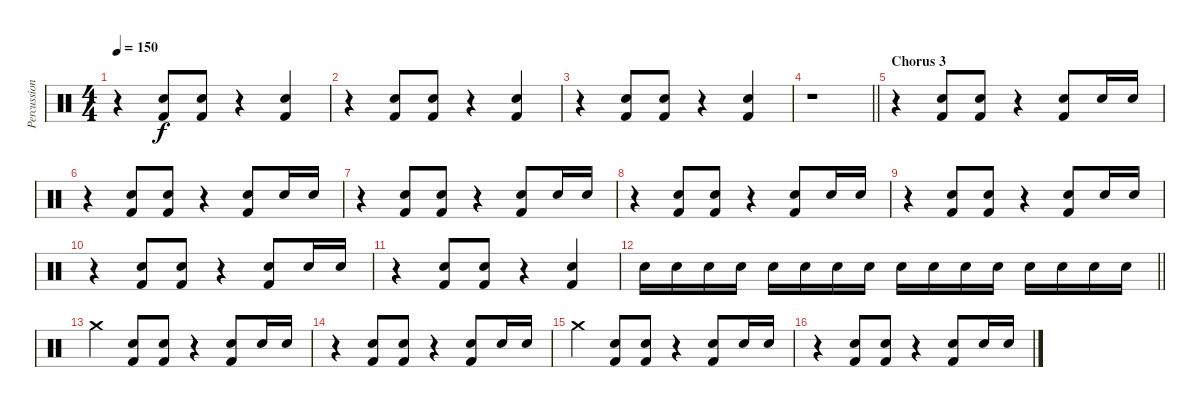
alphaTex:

\track ("Percussion" "Percussion") {instrument percussion}
\staff {score}
\articulation defaults
\ts (4 4)
\tempo 150
\clef neutral
\ks c
r.4{dy f} ("Snare (hit) 2" "Kick (hit) 2").8 ("Snare (hit) 2" "Kick (hit) 2").8 r.4 ("Snare (hit) 2" "Kick (hit) 2").4 |
r.4 ("Snare (hit) 2" "Kick (hit) 2").8 ("Snare (hit) 2" "Kick (hit) 2").8 r.4 ("Snare (hit) 2" "Kick (hit) 2").4 |
r.4 ("Snare (hit) 2" "Kick (hit) 2").8 ("Snare (hit) 2" "Kick (hit) 2").8 r.4 ("Snare (hit) 2" "Kick (hit) 2").4 |
\barLineRight lightlight
r.1 |
\section ("" "Chorus 3")
r.4 ("Snare (hit) 2" "Kick (hit) 2").8 ("Snare (hit) 2" "Kick (hit) 2").8 r.4 ("Snare (hit) 2" "Kick (hit) 2").8 "Snare (hit) 2".16 "Snare (hit) 2".16 |
r.4 ("Snare (hit) 2" "Kick (hit) 2").8 ("Snare (hit) 2" "Kick (hit) 2").8 r.4 ("Snare (hit) 2" "Kick (hit) 2").8 "Snare (hit) 2".16 "Snare (hit) 2".16 |
r.4 ("Snare (hit) 2" "Kick (hit) 2").8 ("Snare (hit) 2" "Kick (hit) 2").8 r.4 ("Snare (hit) 2" "Kick (hit) 2").8 "Snare (hit) 2".16 "Snare (hit) 2".16 |
r.4 ("Snare (hit) 2" "Kick (hit) 2").8 ("Snare (hit) 2" "Kick (hit) 2").8 r.4 ("Snare (hit) 2" "Kick (hit) 2").8 "Snare (hit) 2".16 "Snare (hit) 2".16 |
r.4 ("Snare (hit) 2" "Kick (hit) 2").8 ("Snare (hit) 2" "Kick (hit) 2").8 r.4 ("Snare (hit) 2" "Kick (hit) 2").8 "Snare (hit) 2".16 "Snare (hit) 2".16 |
r.4 ("Snare (hit) 2" "Kick (hit) 2").8 ("Snare (hit) 2" "Kick (hit) 2").8 r.4 ("Snare (hit) 2" "Kick (hit) 2").8 "Snare (hit) 2".16 "Snare (hit) 2".16 |
r.4 ("Snare (hit) 2" "Kick (hit) 2").8 ("Snare (hit) 2" "Kick (hit) 2").8 r.4 ("Snare (hit) 2" "Kick (hit) 2").4 |
\barLineRight lightlight "Electric Snare (hit)".16 "Electric Snare (hit)".16 "Electric Snare (hit)".16 "Electric Snare (hit)".16 "Electric Snare (hit)".16 "Electric Snare (hit)".16 "Electric Snare (hit)".16 "Electric Snare (hit)".16 "Snare (hit) 2".16 "Snare (hit) 2".16 "Snare (hit) 2".16 "Snare (hit) 2".16 "Snare (hit) 2".16 "Snare (hit) 2".16 "Snare (hit) 2".16 "Snare (hit) 2".16
|
"Crash medium (hit)".4 ("Snare (hit) 2" "Kick (hit) 2").8 ("Snare (hit) 2" "Kick (hit) 2").8 r.4 ("Snare (hit) 2" "Kick (hit) 2").8 "Snare (hit) 2".16 "Snare (hit) 2".16 |
r.4 ("Snare (hit) 2" "Kick (hit) 2").8 ("Snare (hit) 2" "Kick (hit) 2").8 r.4 ("Snare (hit) 2" "Kick (hit) 2").8 "Snare (hit) 2".16 "Snare (hit) 2".16 |
"Crash medium (hit)".4 ("Snare (hit) 2" "Kick (hit) 2").8 ("Snare (hit) 2" "Kick (hit) 2").8 r.4 ("Snare (hit) 2" "Kick (hit) 2").8 "Snare (hit) 2".16 "Snare (hit) 2".16 |
r.4 ("Snare (hit) 2" "Kick (hit) 2").8 ("Snare (hit) 2" "Kick (hit) 2").8 r.4 ("Snare (hit) 2" "Kick (hit) 2").8 "Snare (hit) 2".16 "Snare (hit) 2".16
